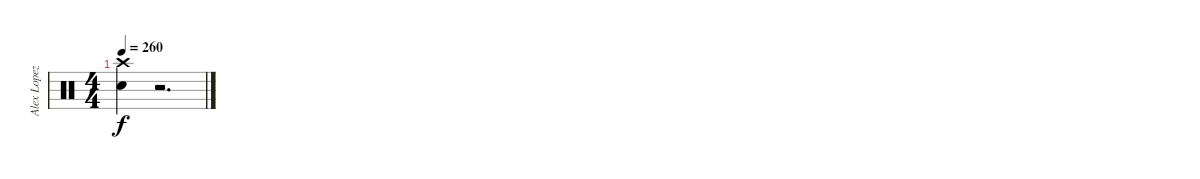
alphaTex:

\track ("Alex Lopez" "Alex Lopez") {instrument percussion}
\staff {score}
\articulation defaults
\ts (4 4)
\tempo 260
\clef neutral
\ks c
("Crash high (hit)" "Electric Snare (hit)").4{dy f} r.2{d}
